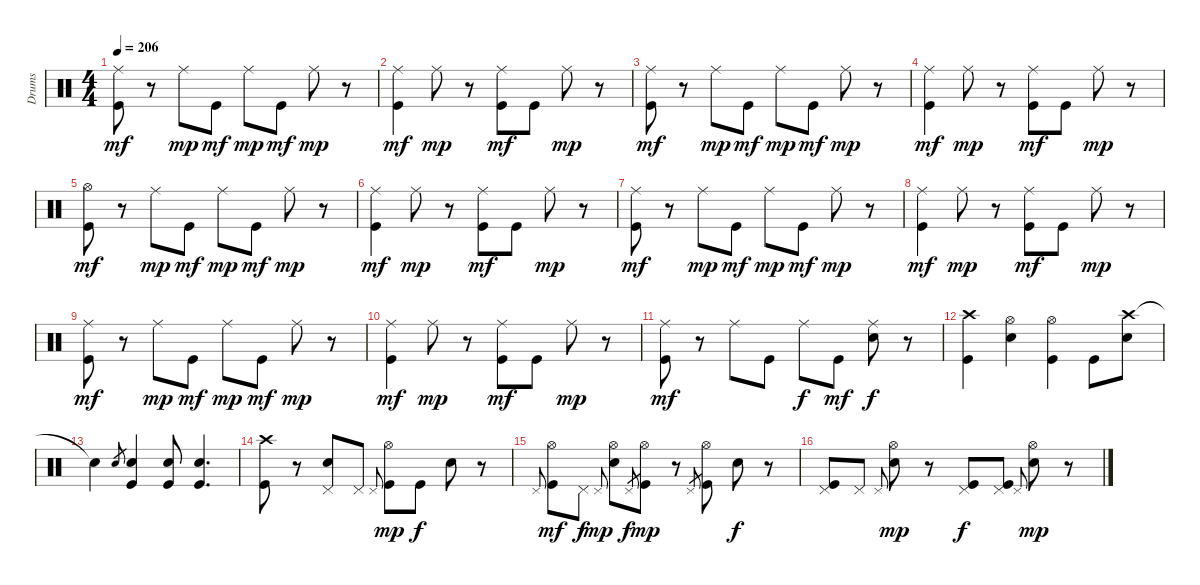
\track ("Drums" "Drums") {instrument percussion}
\staff {score}
\articulation defaults
\ts (4 4)
\tempo 206
\clef neutral
\ks c
("Ride (middle)" "Kick (hit)").8{dy mf} r.8 "Ride (middle)".8{dy mp} "Kick (hit)".8{dy mf} "Ride (middle)".8{dy mp} "Kick (hit)".8{dy mf} "Ride (middle)".8{dy mp} r.8 |
("Ride (middle)" "Kick (hit)").4{dy mf} "Ride (middle)".8{dy mp} r.8 ("Ride (middle)" "Kick (hit)").8{dy mf} "Kick (hit)".8 "Ride (middle)".8{dy mp} r.8 |
("Ride (middle)" "Kick (hit)").8{dy mf} r.8 "Ride (middle)".8{dy mp} "Kick (hit)".8{dy mf} "Ride (middle)".8{dy mp} "Kick (hit)".8{dy mf} "Ride (middle)".8{dy mp} r.8 |
("Ride (middle)" "Kick (hit)").4{dy mf} "Ride (middle)".8{dy mp} r.8 ("Ride (middle)" "Kick (hit)").8{dy mf} "Kick (hit)".8 "Ride (middle)".8{dy mp} r.8 |
("Hi-Hat (open)" "Kick (hit)").8{dy mf} r.8 "Ride (middle)".8{dy mp} "Kick (hit)".8{dy mf} "Ride (middle)".8{dy mp} "Kick (hit)".8{dy mf} "Ride (middle)".8{dy mp} r.8 |
("Ride (middle)" "Kick (hit)").4{dy mf} "Ride (middle)".8{dy mp} r.8 ("Ride (middle)" "Kick (hit)").8{dy mf} "Kick (hit)".8 "Ride (middle)".8{dy mp} r.8 |
("Ride (middle)" "Kick (hit)").8{dy mf} r.8 "Ride (middle)".8{dy mp} "Kick (hit)".8{dy mf} "Ride (middle)".8{dy mp} "Kick (hit)".8{dy mf} "Ride (middle)".8{dy mp} r.8 |
("Ride (middle)" "Kick (hit)").4{dy mf} "Ride (middle)".8{dy mp} r.8 ("Ride (middle)" "Kick (hit)").8{dy mf} "Kick (hit)".8 "Ride (middle)".8{dy mp} r.8 |
("Ride (middle)" "Kick (hit)").8{dy mf} r.8 "Ride (middle)".8{dy mp} "Kick (hit)".8{dy mf} "Ride (middle)".8{dy mp} "Kick (hit)".8{dy mf} "Ride (middle)".8{dy mp} r.8 |
("Ride (middle)" "Kick (hit)").4{dy mf} "Ride (middle)".8{dy mp} r.8 ("Ride (middle)" "Kick (hit)").8{dy mf} "Kick (hit)".8 "Ride (middle)".8{dy mp} r.8 |
("Ride (middle)" "Kick (hit)").8{dy mf} r.8 "Ride (middle)".8 "Kick (hit)".8 "Ride (middle)".8{dy f} "Kick (hit)".8{dy mf} ("Ride (middle)" "Electric Snare (hit)").8{dy f} r.8 |
("Crash high (hit)" "Kick (hit)").4 ("Hi-Hat (open)" "Electric Snare (hit)").4 ("Hi-Hat (open)" "Kick (hit)").4 "Kick (hit)".8 ("Crash high (hit)" "Electric Snare (hit)").8 |
"Snare (hit)"{t}.4 "Electric Snare (hit)".8{gr} ("Electric Snare (hit)" "Kick (hit)").4 ("Electric Snare (hit)" "Kick (hit)").8 ("Electric Snare (hit)" "Kick (hit)").4{d} |
("Crash high (hit)" "Kick (hit)").8 r.8 ("Pedal Hi-Hat (hit)" "Electric Snare (hit)").8 "Pedal Hi-Hat (hit)".8 "Pedal Hi-Hat (hit)".8{gr onbeat} ("Hi-Hat (open)" "Kick (hit)").8{dy mp} "Kick (hit)".8{dy f} "Electric Snare (hit)".8 r.8 |
"Pedal Hi-Hat (hit)".8{gr onbeat} ("Hi-Hat (open)" "Kick (hit)").8{dy mf} "Pedal Hi-Hat (hit)".8{dy f} "Pedal Hi-Hat (hit)".8{gr onbeat dy mp} ("Hi-Hat (open)" "Electric Snare (hit)").8 "Pedal Hi-Hat (hit)".8{gr dy f} ("Hi-Hat (open)" "Kick (hit)").8{dy mp} r.8 "Pedal Hi-Hat (hit)".8{gr} ("Hi-Hat (open)" "Kick (hit)").8 "Electric Snare (hit)".8{dy f} r.8 |
("Pedal Hi-Hat (hit)" "Kick (hit)").8 "Pedal Hi-Hat (hit)".8 "Pedal Hi-Hat (hit)".8{gr onbeat} ("Hi-Hat (open)" "Electric Snare (hit)").8{dy mp} r.8 ("Pedal Hi-Hat (hit)" "Kick (hit)").8{dy f} ("Pedal Hi-Hat (hit)" "Kick (hit)").8 "Pedal Hi-Hat (hit)".8{gr onbeat} ("Hi-Hat (open)" "Electric Snare (hit)").8{dy mp} r.8
